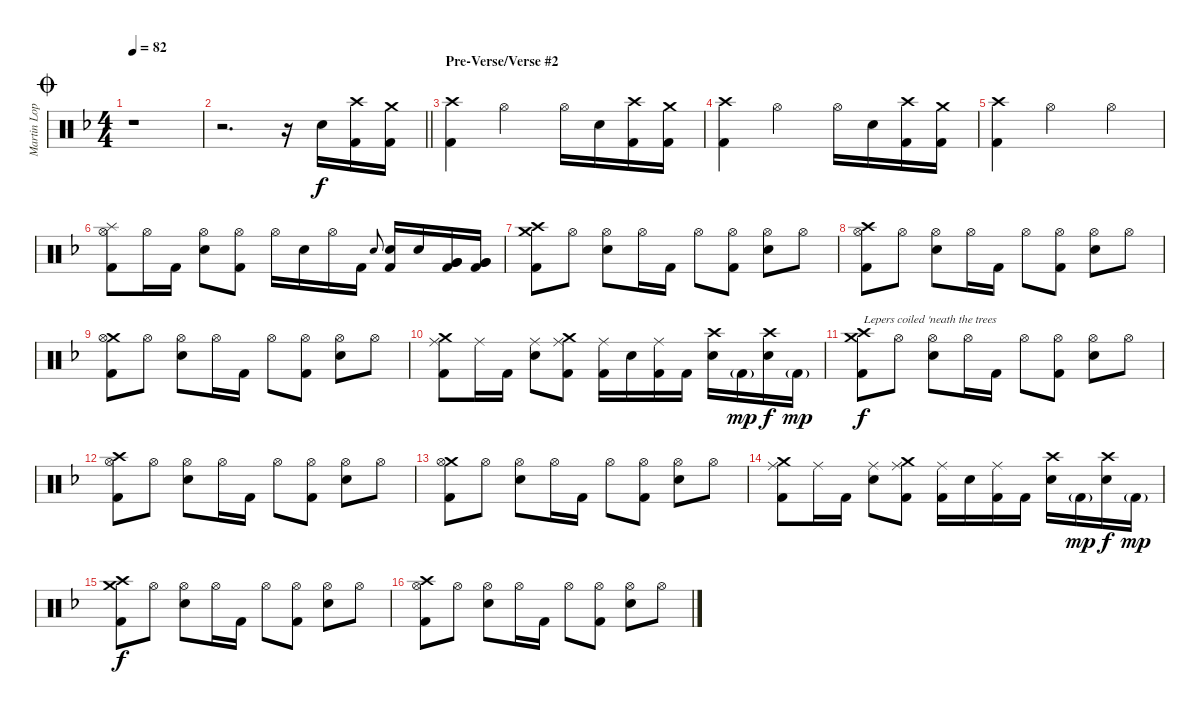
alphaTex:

\track ("Martin Lopez - Drums" "Martin Lop") {instrument percussion}
\staff {score}
\articulation defaults
\ts (4 4)
\jump coda
\tempo 82
\clef neutral
\ks f
r.1{dy f} |
\barLineRight lightlight
r.2{d} r.16 "Electric Snare (hit)".16 ("Crash high (hit)" "Kick (hit) 2").16 ("Crash medium (hit)" "Kick (hit) 2").16 |
\section ("" "Pre-Verse/Verse #2")
("Crash high (hit)" "Kick (hit) 2").4 "Hi-Hat (open)".2 "Hi-Hat (open)".16 "Electric Snare (hit)".16 ("Crash high (hit)" "Kick (hit) 2").16 ("Crash medium (hit)" "Kick (hit) 2").16 |
("Crash high (hit)" "Kick (hit) 2").4 "Hi-Hat (open)".2 "Hi-Hat (open)".16 "Electric Snare (hit)".16 ("Crash high (hit)" "Kick (hit) 2").16 ("Crash medium (hit)" "Kick (hit) 2").16 |
("Crash high (hit)" "Kick (hit) 2").4 "Hi-Hat (open)".2 "Hi-Hat (open)".4 |
("Splash (hit)" "Hi-Hat (open)" "Kick (hit) 2").8 "Hi-Hat (open)".16 "Kick (hit) 2".16 ("Hi-Hat (open)" "Electric Snare (hit)").8 ("Hi-Hat (open)" "Kick (hit) 2").8 "Hi-Hat (open)".16 "Electric Snare (hit)".16 "Hi-Hat (open)".16 "Kick (hit) 2".16 "Electric Snare (hit)".8{gr onbeat} ("Electric Snare (hit)" "Kick (hit) 2").16 "Electric Snare (hit)".16 ("Very Low Tom (hit)" "Very Low Tom (hit)" "Kick (hit) 2").16 ("Very Low Tom (hit)" "Very Low Tom (hit)" "Kick (hit) 2").16 |
("Crash high (hit)" "Crash medium (hit)" "Kick (hit) 2").8 "Hi-Hat (open)".8 ("Hi-Hat (open)" "Electric Snare (hit)").8 "Hi-Hat (open)".16 "Kick (hit) 2".16 "Hi-Hat (open)".8 ("Hi-Hat (open)" "Kick (hit) 2").8 ("Hi-Hat (open)" "Electric Snare (hit)").8 "Hi-Hat (open)".8 |
("Crash high (hit)" "Hi-Hat (open)" "Kick (hit) 2").8 "Hi-Hat (open)".8 ("Hi-Hat (open)" "Electric Snare (hit)").8 "Hi-Hat (open)".16 "Kick (hit) 2".16 "Hi-Hat (open)".8 ("Hi-Hat (open)" "Kick (hit) 2").8 ("Hi-Hat (open)" "Electric Snare (hit)").8 "Hi-Hat (open)".8 |
("Crash medium (hit)" "Hi-Hat (open)" "Kick (hit) 2").8 "Hi-Hat (open)".8 ("Hi-Hat (open)" "Electric Snare (hit)").8 "Hi-Hat (open)".16 "Kick (hit) 2".16 "Hi-Hat (open)".8 ("Hi-Hat (open)" "Kick (hit) 2").8 ("Hi-Hat (open)" "Electric Snare (hit)").8 "Hi-Hat (open)".8 |
("Crash medium (hit)" "Ride (middle)" "Kick (hit) 2").8 "Ride (middle)".16 "Kick (hit) 2".16 ("Ride (middle)" "Electric Snare (hit)").8 ("Crash medium (hit)" "Ride (middle)" "Kick (hit) 2").8 ("Ride (middle)" "Kick (hit) 2").16 "Electric Snare (hit)".16 ("Ride (middle)" "Kick (hit) 2").16 "Kick (hit) 2".16 ("Crash high (hit)" "Electric Snare (hit)").16 "Kick (hit) 2"{g}.16{dy mp} ("Crash high (hit)" "Electric Snare (hit)").16{dy f} "Kick (hit) 2"{g}.16{dy mp} |
("Crash high (hit)" "Crash medium (hit)" "Kick (hit) 2").8{txt "Lepers coiled 'neath the trees" dy f} "Hi-Hat (open)".8 ("Hi-Hat (open)" "Electric Snare (hit)").8 "Hi-Hat (open)".16 "Kick (hit) 2".16 "Hi-Hat (open)".8 ("Hi-Hat (open)" "Kick (hit) 2").8 ("Hi-Hat (open)" "Electric Snare (hit)").8 "Hi-Hat (open)".8 |
("Crash high (hit)" "Hi-Hat (open)" "Kick (hit) 2").8 "Hi-Hat (open)".8 ("Hi-Hat (open)" "Electric Snare (hit)").8 "Hi-Hat (open)".16 "Kick (hit) 2".16 "Hi-Hat (open)".8 ("Hi-Hat (open)" "Kick (hit) 2").8 ("Hi-Hat (open)" "Electric Snare (hit)").8 "Hi-Hat (open)".8 |
("Crash medium (hit)" "Hi-Hat (open)" "Kick (hit) 2").8 "Hi-Hat (open)".8 ("Hi-Hat (open)" "Electric Snare (hit)").8 "Hi-Hat (open)".16 "Kick (hit) 2".16 "Hi-Hat (open)".8 ("Hi-Hat (open)" "Kick (hit) 2").8 ("Hi-Hat (open)" "Electric Snare (hit)").8 "Hi-Hat (open)".8 |
("Crash medium (hit)" "Ride (middle)" "Kick (hit) 2").8 "Ride (middle)".16 "Kick (hit) 2".16 ("Ride (middle)" "Electric Snare (hit)").8 ("Crash medium (hit)" "Ride (middle)" "Kick (hit) 2").8 ("Ride (middle)" "Kick (hit) 2").16 "Electric Snare (hit)".16 ("Ride (middle)" "Kick (hit) 2").16 "Kick (hit) 2".16 ("Crash high (hit)" "Electric Snare (hit)").16 "Kick (hit) 2"{g}.16{dy mp} ("Crash high (hit)" "Electric Snare (hit)").16{dy f} "Kick (hit) 2"{g}.16{dy mp} |
("Crash high (hit)" "Crash medium (hit)" "Kick (hit) 2").8{dy f} "Hi-Hat (open)".8 ("Hi-Hat (open)" "Electric Snare (hit)").8 "Hi-Hat (open)".16 "Kick (hit) 2".16 "Hi-Hat (open)".8 ("Hi-Hat (open)" "Kick (hit) 2").8 ("Hi-Hat (open)" "Electric Snare (hit)").8 "Hi-Hat (open)".8 |
("Crash high (hit)" "Hi-Hat (open)" "Kick (hit) 2").8 "Hi-Hat (open)".8 ("Hi-Hat (open)" "Electric Snare (hit)").8 "Hi-Hat (open)".16 "Kick (hit) 2".16 "Hi-Hat (open)".8 ("Hi-Hat (open)" "Kick (hit) 2").8 ("Hi-Hat (open)" "Electric Snare (hit)").8 "Hi-Hat (open)".8
